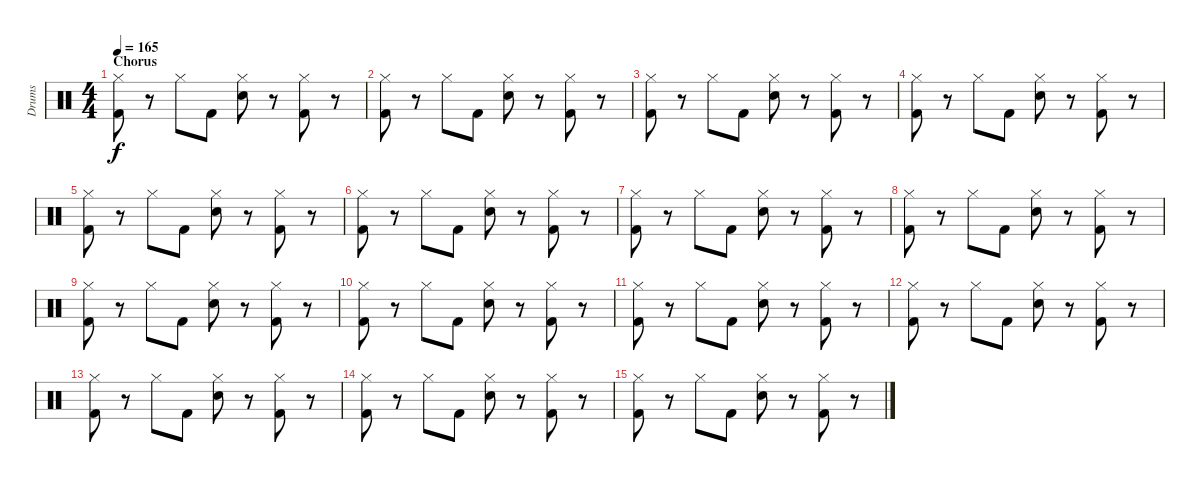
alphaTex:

\track ("Drums" "Drums") {instrument percussion}
\staff {score}
\articulation defaults
\ts (4 4)
\section ("" "Chorus")
\tempo 165
\clef neutral
\ks c
("Hi-Hat (closed)" "Kick (hit) 2").8{dy f} r.8 "Hi-Hat (closed)".8 "Kick (hit) 2".8 ("Hi-Hat (closed)" "Electric Snare (hit)").8 r.8 ("Hi-Hat (closed)" "Kick (hit) 2").8 r.8 |
("Hi-Hat (closed)" "Kick (hit) 2").8 r.8 "Hi-Hat (closed)".8 "Kick (hit) 2".8 ("Hi-Hat (closed)" "Electric Snare (hit)").8 r.8 ("Hi-Hat (closed)" "Kick (hit) 2").8 r.8 |
("Hi-Hat (closed)" "Kick (hit) 2").8 r.8 "Hi-Hat (closed)".8 "Kick (hit) 2".8 ("Hi-Hat (closed)" "Electric Snare (hit)").8 r.8 ("Hi-Hat (closed)" "Kick (hit) 2").8 r.8 |
("Hi-Hat (closed)" "Kick (hit) 2").8 r.8 "Hi-Hat (closed)".8 "Kick (hit) 2".8 ("Hi-Hat (closed)" "Electric Snare (hit)").8 r.8 ("Hi-Hat (closed)" "Kick (hit) 2").8 r.8 |
("Hi-Hat (closed)" "Kick (hit) 2").8 r.8 "Hi-Hat (closed)".8 "Kick (hit) 2".8 ("Hi-Hat (closed)" "Electric Snare (hit)").8 r.8 ("Hi-Hat (closed)" "Kick (hit) 2").8 r.8 |
("Hi-Hat (closed)" "Kick (hit) 2").8 r.8 "Hi-Hat (closed)".8 "Kick (hit) 2".8 ("Hi-Hat (closed)" "Electric Snare (hit)").8 r.8 ("Hi-Hat (closed)" "Kick (hit) 2").8 r.8 |
("Hi-Hat (closed)" "Kick (hit) 2").8 r.8 "Hi-Hat (closed)".8 "Kick (hit) 2".8 ("Hi-Hat (closed)" "Electric Snare (hit)").8 r.8 ("Hi-Hat (closed)" "Kick (hit) 2").8 r.8 |
("Hi-Hat (closed)" "Kick (hit) 2").8 r.8 "Hi-Hat (closed)".8 "Kick (hit) 2".8 ("Hi-Hat (closed)" "Electric Snare (hit)").8 r.8 ("Hi-Hat (closed)" "Kick (hit) 2").8 r.8 |
("Hi-Hat (closed)" "Kick (hit) 2").8 r.8 "Hi-Hat (closed)".8 "Kick (hit) 2".8 ("Hi-Hat (closed)" "Electric Snare (hit)").8 r.8 ("Hi-Hat (closed)" "Kick (hit) 2").8 r.8 |
("Hi-Hat (closed)" "Kick (hit) 2").8 r.8 "Hi-Hat (closed)".8 "Kick (hit) 2".8 ("Hi-Hat (closed)" "Electric Snare (hit)").8 r.8 ("Hi-Hat (closed)" "Kick (hit) 2").8 r.8 |
("Hi-Hat (closed)" "Kick (hit) 2").8 r.8 "Hi-Hat (closed)".8 "Kick (hit) 2".8 ("Hi-Hat (closed)" "Electric Snare (hit)").8 r.8 ("Hi-Hat (closed)" "Kick (hit) 2").8 r.8 |
("Hi-Hat (closed)" "Kick (hit) 2").8 r.8 "Hi-Hat (closed)".8 "Kick (hit) 2".8 ("Hi-Hat (closed)" "Electric Snare (hit)").8 r.8 ("Hi-Hat (closed)" "Kick (hit) 2").8 r.8 |
("Hi-Hat (closed)" "Kick (hit) 2").8 r.8 "Hi-Hat (closed)".8 "Kick (hit) 2".8 ("Hi-Hat (closed)" "Electric Snare (hit)").8 r.8 ("Hi-Hat (closed)" "Kick (hit) 2").8 r.8 |
("Hi-Hat (closed)" "Kick (hit) 2").8 r.8 "Hi-Hat (closed)".8 "Kick (hit) 2".8 ("Hi-Hat (closed)" "Electric Snare (hit)").8 r.8 ("Hi-Hat (closed)" "Kick (hit) 2").8 r.8 |
("Hi-Hat (closed)" "Kick (hit) 2").8 r.8 "Hi-Hat (closed)".8 "Kick (hit) 2".8 ("Hi-Hat (closed)" "Electric Snare (hit)").8 r.8 ("Hi-Hat (closed)" "Kick (hit) 2").8 r.8
